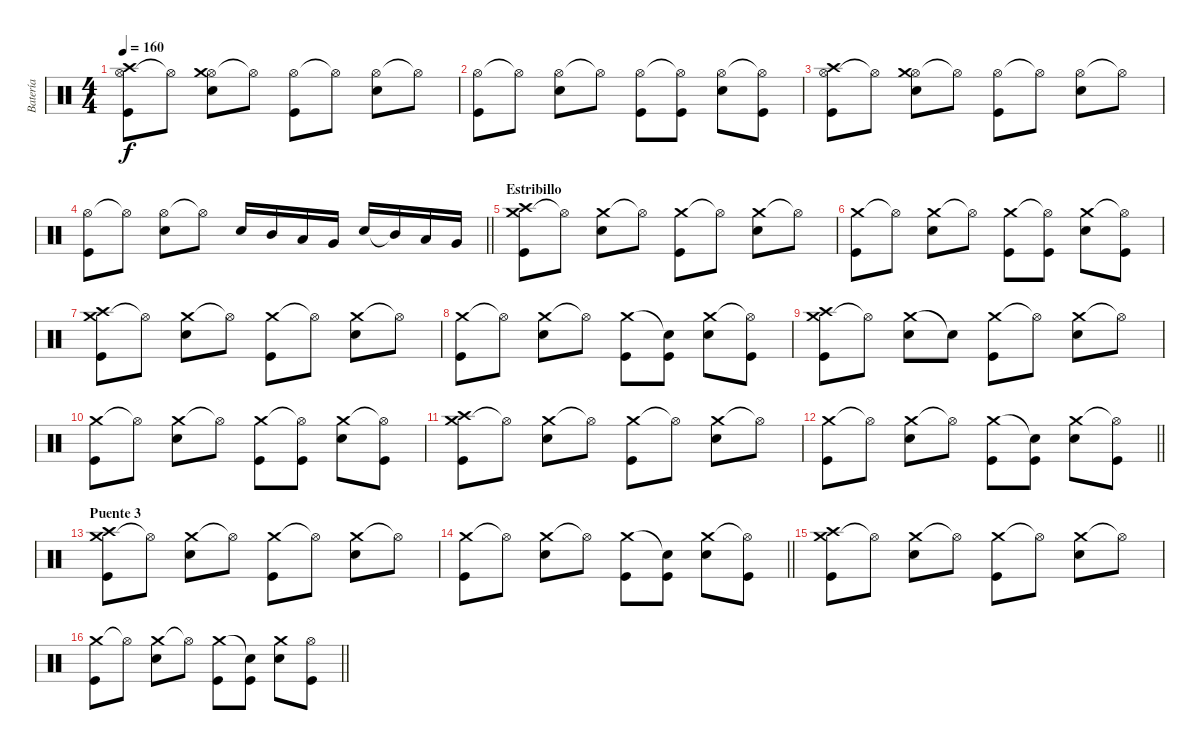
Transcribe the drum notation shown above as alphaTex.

\track ("Batería" "Batería") {instrument percussion}
\staff {score}
\articulation defaults
\ts (4 4)
\tempo 160
\clef neutral
\ks c
("Hi-Hat (open)" "Kick (hit)" "Crash high (hit)").8{dy f} "Hi-Hat (open)"{t}.8 ("Hi-Hat (open)" "Electric Snare (hit)" "Crash medium (hit)").8 "Hi-Hat (open)"{t}.8 ("Hi-Hat (open)" "Kick (hit)").8 "Hi-Hat (open)"{t}.8 ("Hi-Hat (open)" "Electric Snare (hit)").8 "Hi-Hat (open)"{t}.8 |
("Hi-Hat (open)" "Kick (hit)").8 "Hi-Hat (open)"{t}.8 ("Hi-Hat (open)" "Electric Snare (hit)").8 "Hi-Hat (open)"{t}.8 ("Hi-Hat (open)" "Kick (hit)").8 ("Hi-Hat (open)"{t} "Kick (hit)").8 ("Hi-Hat (open)" "Electric Snare (hit)").8 ("Hi-Hat (open)"{t} "Kick (hit)").8 |
("Hi-Hat (open)" "Kick (hit)" "Crash high (hit)").8 "Hi-Hat (open)"{t}.8 ("Hi-Hat (open)" "Electric Snare (hit)" "Crash medium (hit)").8 "Hi-Hat (open)"{t}.8 ("Hi-Hat (open)" "Kick (hit)").8 "Hi-Hat (open)"{t}.8 ("Hi-Hat (open)" "Electric Snare (hit)").8 "Hi-Hat (open)"{t}.8 |
\barLineRight lightlight
("Hi-Hat (open)" "Kick (hit)").8 "Hi-Hat (open)"{t}.8 ("Hi-Hat (open)" "Electric Snare (hit)").8 "Hi-Hat (open)"{t}.8 "Electric Snare (hit)".16 "Mid Tom (hit)".16 "Low Tom (hit)".16 "Very Low Tom (hit)".16 "Electric Snare (hit)".16 "Mid Tom (hit)"{t}.16 "Low Tom (hit)".16 "Very Low Tom (hit)".16 |
\section ("" "Estribillo")
("Crash medium (hit)" "Kick (hit)" "Crash high (hit)").8 "Hi-Hat (open)"{t}.8 ("Crash medium (hit)" "Electric Snare (hit)").8 "Hi-Hat (open)"{t}.8 ("Crash medium (hit)" "Kick (hit)").8 "Hi-Hat (open)"{t}.8 ("Crash medium (hit)" "Electric Snare (hit)").8 "Hi-Hat (open)"{t}.8 |
("Crash medium (hit)" "Kick (hit)").8 "Hi-Hat (open)"{t}.8 ("Crash medium (hit)" "Electric Snare (hit)").8 "Hi-Hat (open)"{t}.8 ("Crash medium (hit)" "Kick (hit)").8 ("Hi-Hat (open)"{t} "Kick (hit)").8 ("Crash medium (hit)" "Electric Snare (hit)").8 ("Hi-Hat (open)"{t} "Kick (hit)").8 |
("Crash medium (hit)" "Kick (hit)" "Crash high (hit)").8 "Hi-Hat (open)"{t}.8 ("Crash medium (hit)" "Electric Snare (hit)").8 "Hi-Hat (open)"{t}.8 ("Crash medium (hit)" "Kick (hit)").8 "Hi-Hat (open)"{t}.8 ("Crash medium (hit)" "Electric Snare (hit)").8 "Hi-Hat (open)"{t}.8 |
("Crash medium (hit)" "Kick (hit)").8 "Hi-Hat (open)"{t}.8 ("Crash medium (hit)" "Electric Snare (hit)").8 "Hi-Hat (open)"{t}.8 ("Crash medium (hit)" "Kick (hit)").8 ("Snare (hit)"{t} "Kick (hit)").8 ("Crash medium (hit)" "Electric Snare (hit)").8 ("Hi-Hat (open)"{t} "Kick (hit)").8 |
("Crash medium (hit)" "Kick (hit)" "Crash high (hit)").8 "Hi-Hat (open)"{t}.8 ("Crash medium (hit)" "Electric Snare (hit)").8 "Snare (hit)"{t}.8 ("Crash medium (hit)" "Kick (hit)").8 "Hi-Hat (open)"{t}.8 ("Crash medium (hit)" "Electric Snare (hit)").8 "Hi-Hat (open)"{t}.8 |
("Crash medium (hit)" "Kick (hit)").8 "Hi-Hat (open)"{t}.8 ("Crash medium (hit)" "Electric Snare (hit)").8 "Hi-Hat (open)"{t}.8 ("Crash medium (hit)" "Kick (hit)").8 ("Hi-Hat (open)"{t} "Kick (hit)").8 ("Crash medium (hit)" "Electric Snare (hit)").8 ("Hi-Hat (open)"{t} "Kick (hit)").8 |
("Crash medium (hit)" "Kick (hit)" "Crash high (hit)").8 "Hi-Hat (open)"{t}.8 ("Crash medium (hit)" "Electric Snare (hit)").8 "Hi-Hat (open)"{t}.8 ("Crash medium (hit)" "Kick (hit)").8 "Hi-Hat (open)"{t}.8 ("Crash medium (hit)" "Electric Snare (hit)").8 "Hi-Hat (open)"{t}.8 |
\barLineRight lightlight
("Crash medium (hit)" "Kick (hit)").8 "Hi-Hat (open)"{t}.8 ("Crash medium (hit)" "Electric Snare (hit)").8 "Hi-Hat (open)"{t}.8 ("Crash medium (hit)" "Kick (hit)").8 ("Snare (hit)"{t} "Kick (hit)").8 ("Crash medium (hit)" "Electric Snare (hit)").8 ("Hi-Hat (open)"{t} "Kick (hit)").8 |
\section ("" "Puente 3")
("Crash medium (hit)" "Kick (hit)" "Crash high (hit)").8 "Hi-Hat (open)"{t}.8 ("Crash medium (hit)" "Electric Snare (hit)").8 "Hi-Hat (open)"{t}.8 ("Crash medium (hit)" "Kick (hit)").8 "Hi-Hat (open)"{t}.8 ("Crash medium (hit)" "Electric Snare (hit)").8 "Hi-Hat (open)"{t}.8 |
\barLineRight lightlight
("Crash medium (hit)" "Kick (hit)").8 "Hi-Hat (open)"{t}.8 ("Crash medium (hit)" "Electric Snare (hit)").8 "Hi-Hat (open)"{t}.8 ("Crash medium (hit)" "Kick (hit)").8 ("Snare (hit)"{t} "Kick (hit)").8 ("Crash medium (hit)" "Electric Snare (hit)").8 ("Hi-Hat (open)"{t} "Kick (hit)").8 |
("Crash medium (hit)" "Kick (hit)" "Crash high (hit)").8 "Hi-Hat (open)"{t}.8 ("Crash medium (hit)" "Electric Snare (hit)").8 "Hi-Hat (open)"{t}.8 ("Crash medium (hit)" "Kick (hit)").8 "Hi-Hat (open)"{t}.8 ("Crash medium (hit)" "Electric Snare (hit)").8 "Hi-Hat (open)"{t}.8 |
\barLineRight lightlight
("Crash medium (hit)" "Kick (hit)").8 "Hi-Hat (open)"{t}.8 ("Crash medium (hit)" "Electric Snare (hit)").8 "Hi-Hat (open)"{t}.8 ("Crash medium (hit)" "Kick (hit)").8 ("Snare (hit)"{t} "Kick (hit)").8 ("Crash medium (hit)" "Electric Snare (hit)").8 ("Hi-Hat (open)" "Kick (hit)").8
